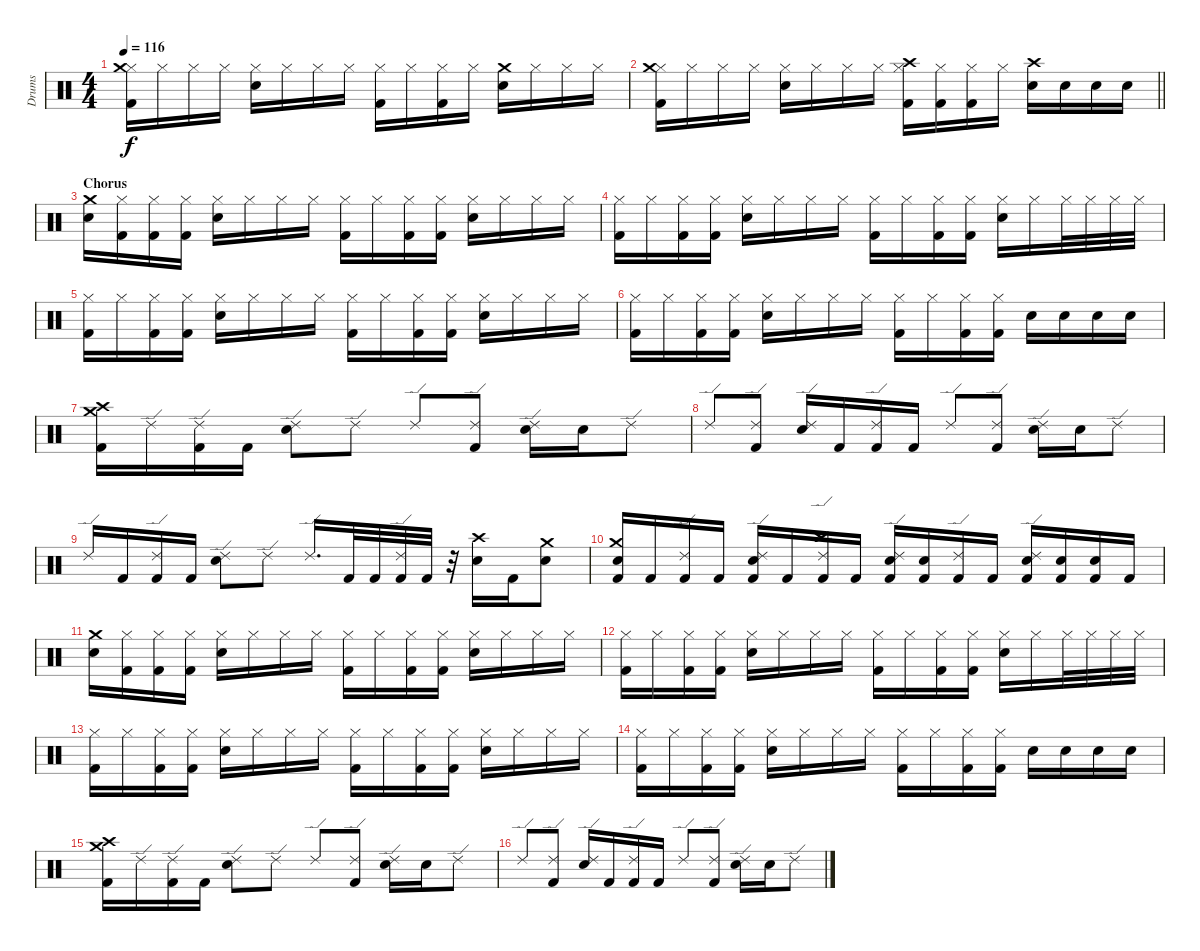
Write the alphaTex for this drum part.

\track ("Drums" "Drums") {instrument percussion}
\staff {score}
\articulation defaults
\ts (4 4)
\tempo 116
\clef neutral
\ks c
("Hi-Hat (closed)" "Kick (hit) 2" "Crash medium (hit)").16{dy f} "Hi-Hat (closed)".16 "Hi-Hat (closed)".16 "Hi-Hat (closed)".16 ("Hi-Hat (closed)" "Snare (hit) 2").16 "Hi-Hat (closed)".16 "Hi-Hat (closed)".16 "Hi-Hat (closed)".16 ("Hi-Hat (closed)" "Kick (hit) 2").16 "Hi-Hat (closed)".16 ("Hi-Hat (closed)" "Kick (hit) 2").16 "Hi-Hat (closed)".16 ("Snare (hit) 2" "Crash medium (hit)").16 "Hi-Hat (closed)".16 "Hi-Hat (closed)".16 "Hi-Hat (closed)".16 |
\barLineRight lightlight
("Hi-Hat (closed)" "Kick (hit) 2" "Crash medium (hit)").16 "Hi-Hat (closed)".16 "Hi-Hat (closed)".16 "Hi-Hat (closed)".16 ("Hi-Hat (closed)" "Snare (hit) 2").16 "Hi-Hat (closed)".16 "Hi-Hat (closed)".16 "Hi-Hat (closed)".16 ("Hi-Hat (closed)" "Kick (hit) 2" "Crash high (hit)").16 ("Hi-Hat (closed)" "Kick (hit) 2").16 ("Hi-Hat (closed)" "Kick (hit) 2").16 "Hi-Hat (closed)".16 ("Snare (hit) 2" "Crash high (hit)").16 "Snare (hit) 2".16 "Snare (hit) 2".16 "Snare (hit) 2".16 |
\section ("" "Chorus")
("Snare (hit) 2" "Crash medium (hit)").16 ("Hi-Hat (closed)" "Kick (hit) 2").16 ("Hi-Hat (closed)" "Kick (hit) 2").16 ("Hi-Hat (closed)" "Kick (hit) 2").16 ("Hi-Hat (closed)" "Snare (hit) 2").16 "Hi-Hat (closed)".16 "Hi-Hat (closed)".16 "Hi-Hat (closed)".16 ("Hi-Hat (closed)" "Kick (hit) 2").16 "Hi-Hat (closed)".16 ("Hi-Hat (closed)" "Kick (hit) 2").16 ("Hi-Hat (closed)" "Kick (hit) 2").16 ("Hi-Hat (closed)" "Snare (hit) 2").16 "Hi-Hat (closed)".16 "Hi-Hat (closed)".16 "Hi-Hat (closed)".16 |
("Hi-Hat (closed)" "Kick (hit) 2").16 "Hi-Hat (closed)".16 ("Hi-Hat (closed)" "Kick (hit) 2").16 ("Hi-Hat (closed)" "Kick (hit) 2").16 ("Hi-Hat (closed)" "Snare (hit) 2").16 "Hi-Hat (closed)".16 "Hi-Hat (closed)".16 "Hi-Hat (closed)".16 ("Hi-Hat (closed)" "Kick (hit) 2").16 "Hi-Hat (closed)".16 ("Hi-Hat (closed)" "Kick (hit) 2").16 ("Hi-Hat (closed)" "Kick (hit) 2").16 ("Hi-Hat (closed)" "Snare (hit) 2").16 "Hi-Hat (closed)".16 "Hi-Hat (closed)".32 "Hi-Hat (closed)".32 "Hi-Hat (closed)".32 "Hi-Hat (closed)".32 |
("Hi-Hat (closed)" "Kick (hit) 2").16 "Hi-Hat (closed)".16 ("Hi-Hat (closed)" "Kick (hit) 2").16 ("Hi-Hat (closed)" "Kick (hit) 2").16 ("Hi-Hat (closed)" "Snare (hit) 2").16 "Hi-Hat (closed)".16 "Hi-Hat (closed)".16 "Hi-Hat (closed)".16 ("Hi-Hat (closed)" "Kick (hit) 2").16 "Hi-Hat (closed)".16 ("Hi-Hat (closed)" "Kick (hit) 2").16 ("Hi-Hat (closed)" "Kick (hit) 2").16 ("Hi-Hat (closed)" "Snare (hit) 2").16 "Hi-Hat (closed)".16 "Hi-Hat (closed)".16 "Hi-Hat (closed)".16 |
("Hi-Hat (closed)" "Kick (hit) 2").16 "Hi-Hat (closed)".16 ("Hi-Hat (closed)" "Kick (hit) 2").16 ("Hi-Hat (closed)" "Kick (hit) 2").16 ("Hi-Hat (closed)" "Snare (hit) 2").16 "Hi-Hat (closed)".16 "Hi-Hat (closed)".16 "Hi-Hat (closed)".16 ("Hi-Hat (closed)" "Kick (hit) 2").16 "Hi-Hat (closed)".16 ("Hi-Hat (closed)" "Kick (hit) 2").16 ("Hi-Hat (closed)" "Kick (hit) 2").16 "Snare (hit) 2".16 "Snare (hit) 2".16 "Snare (hit) 2".16 "Snare (hit) 2".16 |
("Kick (hit) 2" "Crash medium (hit)" "Crash high (hit)").16 "Ride (edge) 2".16 ("Ride (edge) 2" "Kick (hit) 2").16 "Kick (hit) 2".16 ("Ride (edge) 2" "Snare (hit) 2").8 "Ride (edge) 2".8 "Ride (edge) 2".8 ("Ride (edge) 2" "Kick (hit) 2").8 ("Ride (edge) 2" "Snare (hit) 2").16 "Snare (hit) 2".16 "Ride (edge) 2".8 |
"Ride (edge) 2".8 ("Ride (edge) 2" "Kick (hit) 2").8 ("Ride (edge) 2" "Snare (hit) 2").16 "Kick (hit) 2".16 ("Ride (edge) 2" "Kick (hit) 2").16 "Kick (hit) 2".16 "Ride (edge) 2".8 ("Ride (edge) 2" "Kick (hit) 2").8 ("Ride (edge) 2" "Snare (hit) 2").16 "Snare (hit) 2".16 "Ride (edge) 2".8 |
"Ride (edge) 2".16 "Kick (hit) 2".16 ("Ride (edge) 2" "Kick (hit) 2").16 "Kick (hit) 2".16 ("Ride (edge) 2" "Snare (hit) 2").8 "Ride (edge) 2".8 "Ride (edge) 2".16{d} "Kick (hit) 2".32 "Kick (hit) 2".32 ("Ride (edge) 2" "Kick (hit) 2").32 "Kick (hit) 2".32 r.32 ("Snare (hit) 2" "Crash high (hit)").16 "Kick (hit) 2".16 ("Snare (hit) 2" "Crash medium (hit)").8 |
("Kick (hit) 2" "Snare (hit) 2" "Crash medium (hit)").16 "Kick (hit) 2".16 ("Ride (edge) 2" "Kick (hit) 2").16 "Kick (hit) 2".16 ("Ride (edge) 2" "Kick (hit) 2" "Snare (hit) 2").16 "Kick (hit) 2".16 ("Ride (edge) 2" "Kick (hit) 2" "Crash high (hit)").16 "Kick (hit) 2".16 ("Ride (edge) 2" "Kick (hit) 2" "Snare (hit) 2").16 ("Kick (hit) 2" "Snare (hit) 2").16 ("Ride (edge) 2" "Kick (hit) 2").16 "Kick (hit) 2".16 ("Ride (edge) 2" "Kick (hit) 2" "Snare (hit) 2").16 ("Kick (hit) 2" "Snare (hit) 2").16 ("Kick (hit) 2" "Snare (hit) 2").16 "Kick (hit) 2".16 |
("Snare (hit) 2" "Crash medium (hit)").16 ("Hi-Hat (closed)" "Kick (hit) 2").16 ("Hi-Hat (closed)" "Kick (hit) 2").16 ("Hi-Hat (closed)" "Kick (hit) 2").16 ("Hi-Hat (closed)" "Snare (hit) 2").16 "Hi-Hat (closed)".16 "Hi-Hat (closed)".16 "Hi-Hat (closed)".16 ("Hi-Hat (closed)" "Kick (hit) 2").16 "Hi-Hat (closed)".16 ("Hi-Hat (closed)" "Kick (hit) 2").16 ("Hi-Hat (closed)" "Kick (hit) 2").16 ("Hi-Hat (closed)" "Snare (hit) 2").16 "Hi-Hat (closed)".16 "Hi-Hat (closed)".16 "Hi-Hat (closed)".16 |
("Hi-Hat (closed)" "Kick (hit) 2").16 "Hi-Hat (closed)".16 ("Hi-Hat (closed)" "Kick (hit) 2").16 ("Hi-Hat (closed)" "Kick (hit) 2").16 ("Hi-Hat (closed)" "Snare (hit) 2").16 "Hi-Hat (closed)".16 "Hi-Hat (closed)".16 "Hi-Hat (closed)".16 ("Hi-Hat (closed)" "Kick (hit) 2").16 "Hi-Hat (closed)".16 ("Hi-Hat (closed)" "Kick (hit) 2").16 ("Hi-Hat (closed)" "Kick (hit) 2").16 ("Hi-Hat (closed)" "Snare (hit) 2").16 "Hi-Hat (closed)".16 "Hi-Hat (closed)".32 "Hi-Hat (closed)".32 "Hi-Hat (closed)".32 "Hi-Hat (closed)".32 |
("Hi-Hat (closed)" "Kick (hit) 2").16 "Hi-Hat (closed)".16 ("Hi-Hat (closed)" "Kick (hit) 2").16 ("Hi-Hat (closed)" "Kick (hit) 2").16 ("Hi-Hat (closed)" "Snare (hit) 2").16 "Hi-Hat (closed)".16 "Hi-Hat (closed)".16 "Hi-Hat (closed)".16 ("Hi-Hat (closed)" "Kick (hit) 2").16 "Hi-Hat (closed)".16 ("Hi-Hat (closed)" "Kick (hit) 2").16 ("Hi-Hat (closed)" "Kick (hit) 2").16 ("Hi-Hat (closed)" "Snare (hit) 2").16 "Hi-Hat (closed)".16 "Hi-Hat (closed)".16 "Hi-Hat (closed)".16 |
("Hi-Hat (closed)" "Kick (hit) 2").16 "Hi-Hat (closed)".16 ("Hi-Hat (closed)" "Kick (hit) 2").16 ("Hi-Hat (closed)" "Kick (hit) 2").16 ("Hi-Hat (closed)" "Snare (hit) 2").16 "Hi-Hat (closed)".16 "Hi-Hat (closed)".16 "Hi-Hat (closed)".16 ("Hi-Hat (closed)" "Kick (hit) 2").16 "Hi-Hat (closed)".16 ("Hi-Hat (closed)" "Kick (hit) 2").16 ("Hi-Hat (closed)" "Kick (hit) 2").16 "Snare (hit) 2".16 "Snare (hit) 2".16 "Snare (hit) 2".16 "Snare (hit) 2".16 |
("Kick (hit) 2" "Crash medium (hit)" "Crash high (hit)").16 "Ride (edge) 2".16 ("Ride (edge) 2" "Kick (hit) 2").16 "Kick (hit) 2".16 ("Ride (edge) 2" "Snare (hit) 2").8 "Ride (edge) 2".8 "Ride (edge) 2".8 ("Ride (edge) 2" "Kick (hit) 2").8 ("Ride (edge) 2" "Snare (hit) 2").16 "Snare (hit) 2".16 "Ride (edge) 2".8 |
"Ride (edge) 2".8 ("Ride (edge) 2" "Kick (hit) 2").8 ("Ride (edge) 2" "Snare (hit) 2").16 "Kick (hit) 2".16 ("Ride (edge) 2" "Kick (hit) 2").16 "Kick (hit) 2".16 "Ride (edge) 2".8 ("Ride (edge) 2" "Kick (hit) 2").8 ("Ride (edge) 2" "Snare (hit) 2").16 "Snare (hit) 2".16 "Ride (edge) 2".8
